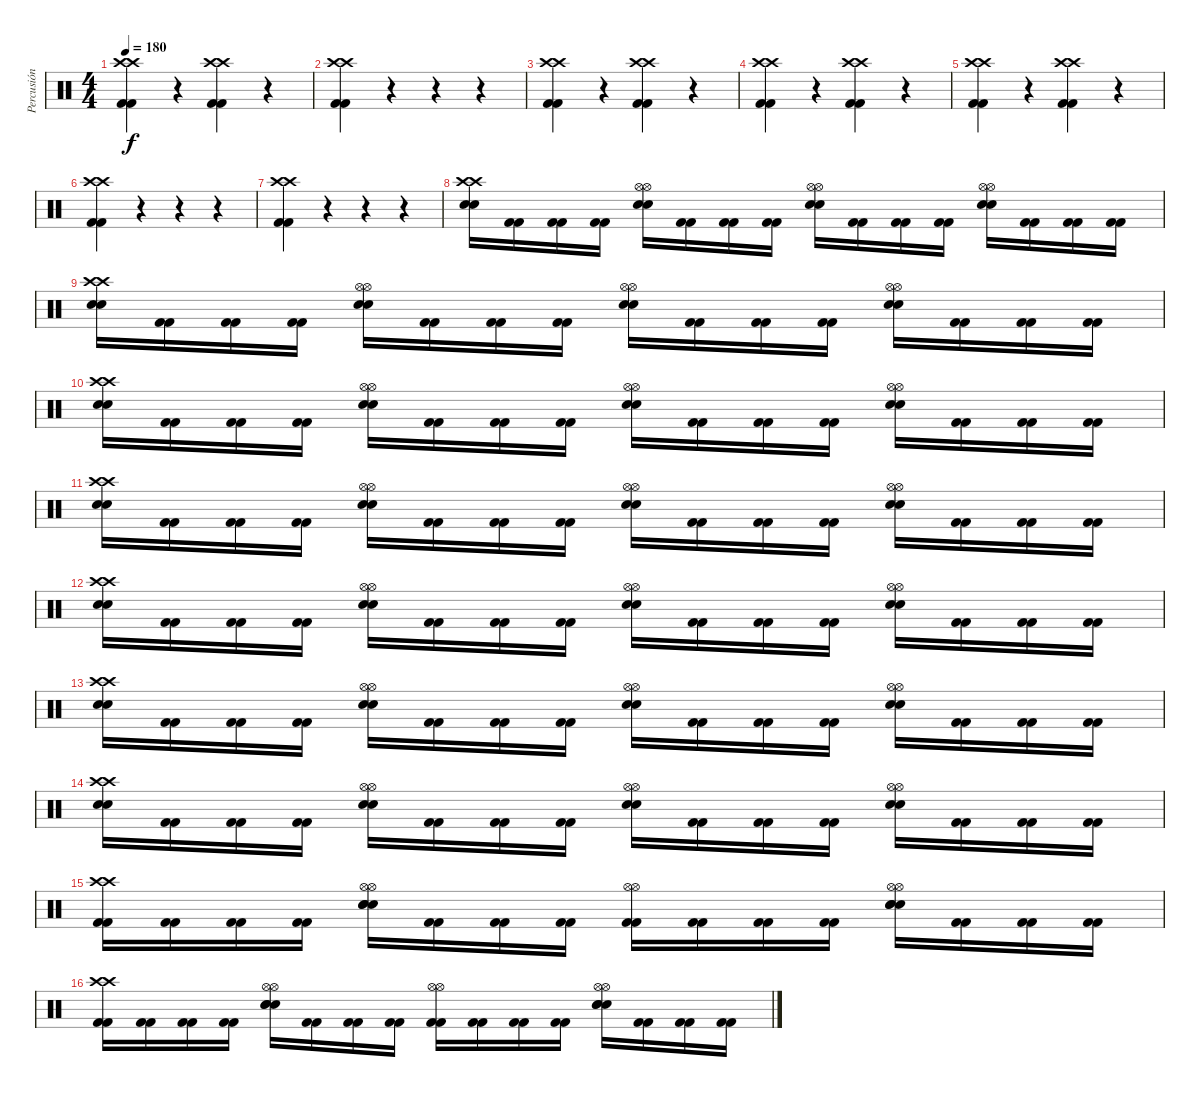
\track ("Percusión" "Percusión") {instrument percussion}
\staff {score}
\articulation defaults
\ts (4 4)
\tempo 180
\clef neutral
\ks c
("Kick (hit) 2" "Kick (hit) 2" "Crash high (hit)" "Crash high (hit)").4{dy f} r.4 ("Kick (hit) 2" "Kick (hit) 2" "Crash high (hit)" "Crash high (hit)").4 r.4 |
("Kick (hit) 2" "Kick (hit) 2" "Crash high (hit)" "Crash high (hit)").4 r.4 r.4 r.4 |
("Kick (hit) 2" "Kick (hit) 2" "Crash high (hit)" "Crash high (hit)").4 r.4 ("Kick (hit) 2" "Kick (hit) 2" "Crash high (hit)" "Crash high (hit)").4 r.4 |
("Kick (hit) 2" "Kick (hit) 2" "Crash high (hit)" "Crash high (hit)").4 r.4 ("Kick (hit) 2" "Kick (hit) 2" "Crash high (hit)" "Crash high (hit)").4 r.4 |
("Kick (hit) 2" "Kick (hit) 2" "Crash high (hit)" "Crash high (hit)").4 r.4 ("Kick (hit) 2" "Kick (hit) 2" "Crash high (hit)" "Crash high (hit)").4 r.4 |
("Kick (hit) 2" "Kick (hit) 2" "Crash high (hit)" "Crash high (hit)").4 r.4 r.4 r.4 |
("Kick (hit) 2" "Kick (hit) 2" "Crash high (hit)" "Crash high (hit)").4 r.4 r.4 r.4 |
("Snare (hit) 2" "Snare (hit) 2" "Crash high (hit)" "Crash high (hit)").16 ("Kick (hit) 2" "Kick (hit) 2").16 ("Kick (hit) 2" "Kick (hit) 2").16 ("Kick (hit) 2" "Kick (hit) 2").16 ("Snare (hit) 2" "Snare (hit) 2" "Hi-Hat (open)" "Hi-Hat (open)").16 ("Kick (hit) 2" "Kick (hit) 2").16 ("Kick (hit) 2" "Kick (hit) 2").16 ("Kick (hit) 2" "Kick (hit) 2").16 ("Snare (hit) 2" "Snare (hit) 2" "Hi-Hat (open)" "Hi-Hat (open)").16 ("Kick (hit) 2" "Kick (hit) 2").16 ("Kick (hit) 2" "Kick (hit) 2").16 ("Kick (hit) 2" "Kick (hit) 2").16 ("Snare (hit) 2" "Snare (hit) 2" "Hi-Hat (open)" "Hi-Hat (open)").16 ("Kick (hit) 2" "Kick (hit) 2").16 ("Kick (hit) 2" "Kick (hit) 2").16 ("Kick (hit) 2" "Kick (hit) 2").16 |
("Snare (hit) 2" "Snare (hit) 2" "Crash high (hit)" "Crash high (hit)").16 ("Kick (hit) 2" "Kick (hit) 2").16 ("Kick (hit) 2" "Kick (hit) 2").16 ("Kick (hit) 2" "Kick (hit) 2").16 ("Snare (hit) 2" "Snare (hit) 2" "Hi-Hat (open)" "Hi-Hat (open)").16 ("Kick (hit) 2" "Kick (hit) 2").16 ("Kick (hit) 2" "Kick (hit) 2").16 ("Kick (hit) 2" "Kick (hit) 2").16 ("Snare (hit) 2" "Snare (hit) 2" "Hi-Hat (open)" "Hi-Hat (open)").16 ("Kick (hit) 2" "Kick (hit) 2").16 ("Kick (hit) 2" "Kick (hit) 2").16 ("Kick (hit) 2" "Kick (hit) 2").16 ("Snare (hit) 2" "Snare (hit) 2" "Hi-Hat (open)" "Hi-Hat (open)").16 ("Kick (hit) 2" "Kick (hit) 2").16 ("Kick (hit) 2" "Kick (hit) 2").16 ("Kick (hit) 2" "Kick (hit) 2").16 |
("Snare (hit) 2" "Snare (hit) 2" "Crash high (hit)" "Crash high (hit)").16 ("Kick (hit) 2" "Kick (hit) 2").16 ("Kick (hit) 2" "Kick (hit) 2").16 ("Kick (hit) 2" "Kick (hit) 2").16 ("Snare (hit) 2" "Snare (hit) 2" "Hi-Hat (open)" "Hi-Hat (open)").16 ("Kick (hit) 2" "Kick (hit) 2").16 ("Kick (hit) 2" "Kick (hit) 2").16 ("Kick (hit) 2" "Kick (hit) 2").16 ("Snare (hit) 2" "Snare (hit) 2" "Hi-Hat (open)" "Hi-Hat (open)").16 ("Kick (hit) 2" "Kick (hit) 2").16 ("Kick (hit) 2" "Kick (hit) 2").16 ("Kick (hit) 2" "Kick (hit) 2").16 ("Snare (hit) 2" "Snare (hit) 2" "Hi-Hat (open)" "Hi-Hat (open)").16 ("Kick (hit) 2" "Kick (hit) 2").16 ("Kick (hit) 2" "Kick (hit) 2").16 ("Kick (hit) 2" "Kick (hit) 2").16 |
("Snare (hit) 2" "Snare (hit) 2" "Crash high (hit)" "Crash high (hit)").16 ("Kick (hit) 2" "Kick (hit) 2").16 ("Kick (hit) 2" "Kick (hit) 2").16 ("Kick (hit) 2" "Kick (hit) 2").16 ("Snare (hit) 2" "Snare (hit) 2" "Hi-Hat (open)" "Hi-Hat (open)").16 ("Kick (hit) 2" "Kick (hit) 2").16 ("Kick (hit) 2" "Kick (hit) 2").16 ("Kick (hit) 2" "Kick (hit) 2").16 ("Snare (hit) 2" "Snare (hit) 2" "Hi-Hat (open)" "Hi-Hat (open)").16 ("Kick (hit) 2" "Kick (hit) 2").16 ("Kick (hit) 2" "Kick (hit) 2").16 ("Kick (hit) 2" "Kick (hit) 2").16 ("Snare (hit) 2" "Snare (hit) 2" "Hi-Hat (open)" "Hi-Hat (open)").16 ("Kick (hit) 2" "Kick (hit) 2").16 ("Kick (hit) 2" "Kick (hit) 2").16 ("Kick (hit) 2" "Kick (hit) 2").16 |
("Snare (hit) 2" "Snare (hit) 2" "Crash high (hit)" "Crash high (hit)").16 ("Kick (hit) 2" "Kick (hit) 2").16 ("Kick (hit) 2" "Kick (hit) 2").16 ("Kick (hit) 2" "Kick (hit) 2").16 ("Snare (hit) 2" "Snare (hit) 2" "Hi-Hat (open)" "Hi-Hat (open)").16 ("Kick (hit) 2" "Kick (hit) 2").16 ("Kick (hit) 2" "Kick (hit) 2").16 ("Kick (hit) 2" "Kick (hit) 2").16 ("Snare (hit) 2" "Snare (hit) 2" "Hi-Hat (open)" "Hi-Hat (open)").16 ("Kick (hit) 2" "Kick (hit) 2").16 ("Kick (hit) 2" "Kick (hit) 2").16 ("Kick (hit) 2" "Kick (hit) 2").16 ("Snare (hit) 2" "Snare (hit) 2" "Hi-Hat (open)" "Hi-Hat (open)").16 ("Kick (hit) 2" "Kick (hit) 2").16 ("Kick (hit) 2" "Kick (hit) 2").16 ("Kick (hit) 2" "Kick (hit) 2").16 |
("Snare (hit) 2" "Snare (hit) 2" "Crash high (hit)" "Crash high (hit)").16 ("Kick (hit) 2" "Kick (hit) 2").16 ("Kick (hit) 2" "Kick (hit) 2").16 ("Kick (hit) 2" "Kick (hit) 2").16 ("Snare (hit) 2" "Snare (hit) 2" "Hi-Hat (open)" "Hi-Hat (open)").16 ("Kick (hit) 2" "Kick (hit) 2").16 ("Kick (hit) 2" "Kick (hit) 2").16 ("Kick (hit) 2" "Kick (hit) 2").16 ("Snare (hit) 2" "Snare (hit) 2" "Hi-Hat (open)" "Hi-Hat (open)").16 ("Kick (hit) 2" "Kick (hit) 2").16 ("Kick (hit) 2" "Kick (hit) 2").16 ("Kick (hit) 2" "Kick (hit) 2").16 ("Snare (hit) 2" "Snare (hit) 2" "Hi-Hat (open)" "Hi-Hat (open)").16 ("Kick (hit) 2" "Kick (hit) 2").16 ("Kick (hit) 2" "Kick (hit) 2").16 ("Kick (hit) 2" "Kick (hit) 2").16 |
("Snare (hit) 2" "Snare (hit) 2" "Crash high (hit)" "Crash high (hit)").16 ("Kick (hit) 2" "Kick (hit) 2").16 ("Kick (hit) 2" "Kick (hit) 2").16 ("Kick (hit) 2" "Kick (hit) 2").16 ("Snare (hit) 2" "Snare (hit) 2" "Hi-Hat (open)" "Hi-Hat (open)").16 ("Kick (hit) 2" "Kick (hit) 2").16 ("Kick (hit) 2" "Kick (hit) 2").16 ("Kick (hit) 2" "Kick (hit) 2").16 ("Snare (hit) 2" "Snare (hit) 2" "Hi-Hat (open)" "Hi-Hat (open)").16 ("Kick (hit) 2" "Kick (hit) 2").16 ("Kick (hit) 2" "Kick (hit) 2").16 ("Kick (hit) 2" "Kick (hit) 2").16 ("Snare (hit) 2" "Snare (hit) 2" "Hi-Hat (open)" "Hi-Hat (open)").16 ("Kick (hit) 2" "Kick (hit) 2").16 ("Kick (hit) 2" "Kick (hit) 2").16 ("Kick (hit) 2" "Kick (hit) 2").16 |
("Kick (hit) 2" "Kick (hit) 2" "Crash high (hit)" "Crash high (hit)").16 ("Kick (hit) 2" "Kick (hit) 2").16 ("Kick (hit) 2" "Kick (hit) 2").16 ("Kick (hit) 2" "Kick (hit) 2").16 ("Snare (hit) 2" "Snare (hit) 2" "Snare (hit) 2" "Hi-Hat (open)" "Hi-Hat (open)").16 ("Kick (hit) 2" "Kick (hit) 2").16 ("Kick (hit) 2" "Kick (hit) 2").16 ("Kick (hit) 2" "Kick (hit) 2").16 ("Kick (hit) 2" "Kick (hit) 2" "Hi-Hat (open)" "Hi-Hat (open)").16 ("Kick (hit) 2" "Kick (hit) 2").16 ("Kick (hit) 2" "Kick (hit) 2").16 ("Kick (hit) 2" "Kick (hit) 2").16 ("Snare (hit) 2" "Snare (hit) 2" "Snare (hit) 2" "Hi-Hat (open)" "Hi-Hat (open)").16 ("Kick (hit) 2" "Kick (hit) 2").16 ("Kick (hit) 2" "Kick (hit) 2").16 ("Kick (hit) 2" "Kick (hit) 2").16 |
("Kick (hit) 2" "Kick (hit) 2" "Crash high (hit)" "Crash high (hit)").16 ("Kick (hit) 2" "Kick (hit) 2").16 ("Kick (hit) 2" "Kick (hit) 2").16 ("Kick (hit) 2" "Kick (hit) 2").16 ("Snare (hit) 2" "Snare (hit) 2" "Snare (hit) 2" "Hi-Hat (open)" "Hi-Hat (open)").16 ("Kick (hit) 2" "Kick (hit) 2").16 ("Kick (hit) 2" "Kick (hit) 2").16 ("Kick (hit) 2" "Kick (hit) 2").16 ("Kick (hit) 2" "Kick (hit) 2" "Hi-Hat (open)" "Hi-Hat (open)").16 ("Kick (hit) 2" "Kick (hit) 2").16 ("Kick (hit) 2" "Kick (hit) 2").16 ("Kick (hit) 2" "Kick (hit) 2").16 ("Snare (hit) 2" "Snare (hit) 2" "Snare (hit) 2" "Hi-Hat (open)" "Hi-Hat (open)").16 ("Kick (hit) 2" "Kick (hit) 2").16 ("Kick (hit) 2" "Kick (hit) 2").16 ("Kick (hit) 2" "Kick (hit) 2").16
